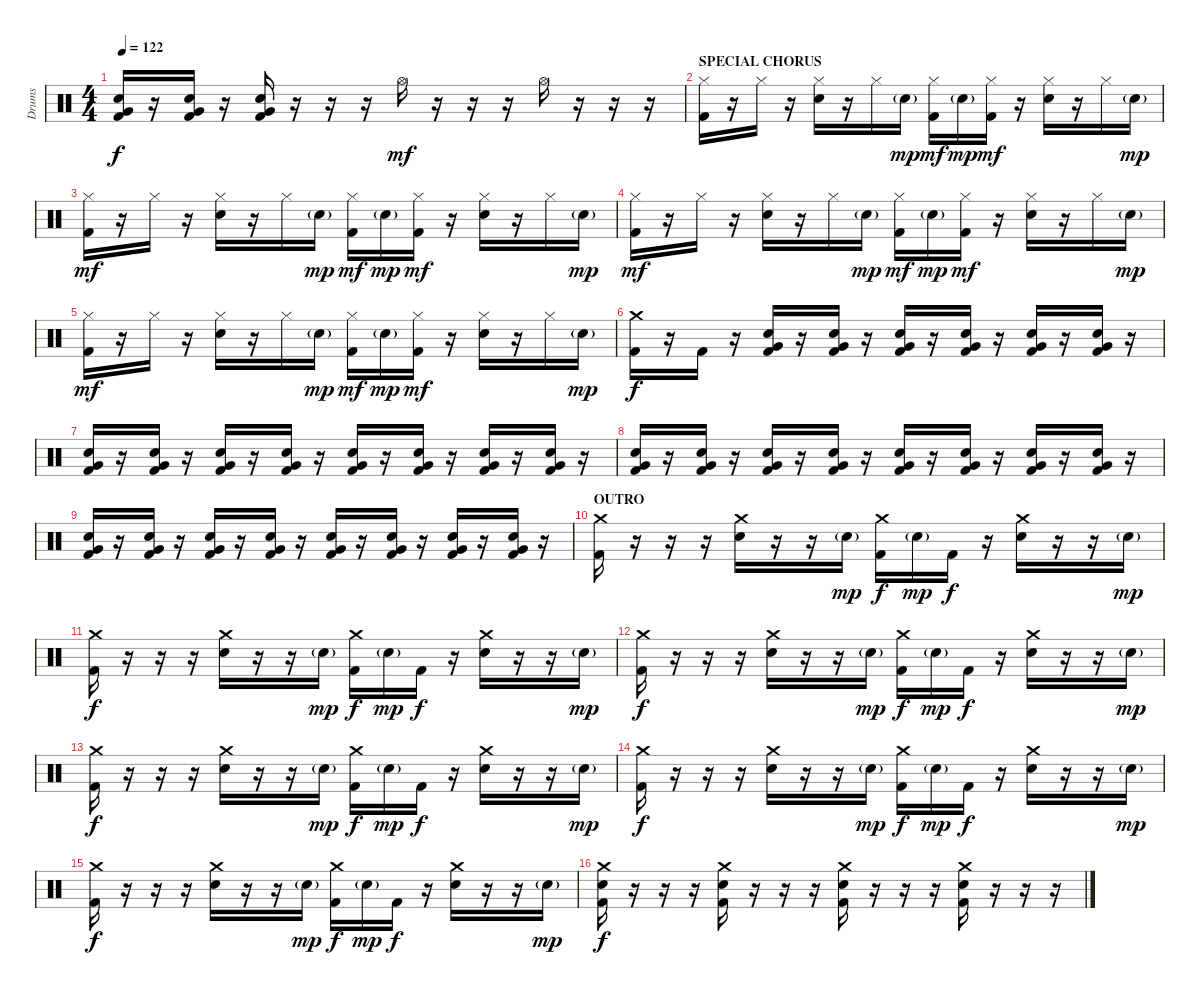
\track ("Drums" "Drums") {instrument percussion}
\staff {score}
\articulation defaults
\ts (4 4)
\tempo 122
\clef neutral
\ks c
("Electric Snare (hit)" "Very Low Tom (hit)" "Kick (hit) 2").16{dy f} r.16 ("Electric Snare (hit)" "Very Low Tom (hit)" "Kick (hit) 2").16 r.16 ("Electric Snare (hit)" "Very Low Tom (hit)" "Kick (hit) 2").16 r.16 r.16 r.16 "Hi-Hat (open)".16{dy mf} r.16 r.16 r.16 "Hi-Hat (open)".16 r.16 r.16 r.16 |
\section ("" "SPECIAL CHORUS")
("Hi-Hat (closed)" "Kick (hit) 2").16 r.16 "Hi-Hat (closed)".16 r.16 ("Hi-Hat (closed)" "Electric Snare (hit)").16 r.16 "Hi-Hat (closed)".16 "Electric Snare (hit)"{g}.16{dy mp} ("Hi-Hat (closed)" "Kick (hit) 2").16{dy mf} "Electric Snare (hit)"{g}.16{dy mp} ("Hi-Hat (closed)" "Kick (hit) 2").16{dy mf} r.16 ("Hi-Hat (closed)" "Electric Snare (hit)").16 r.16 "Hi-Hat (closed)".16 "Electric Snare (hit)"{g}.16{dy mp} |
("Hi-Hat (closed)" "Kick (hit) 2").16{dy mf} r.16 "Hi-Hat (closed)".16 r.16 ("Hi-Hat (closed)" "Electric Snare (hit)").16 r.16 "Hi-Hat (closed)".16 "Electric Snare (hit)"{g}.16{dy mp} ("Hi-Hat (closed)" "Kick (hit) 2").16{dy mf} "Electric Snare (hit)"{g}.16{dy mp} ("Hi-Hat (closed)" "Kick (hit) 2").16{dy mf} r.16 ("Hi-Hat (closed)" "Electric Snare (hit)").16 r.16 "Hi-Hat (closed)".16 "Electric Snare (hit)"{g}.16{dy mp} |
("Hi-Hat (closed)" "Kick (hit) 2").16{dy mf} r.16 "Hi-Hat (closed)".16 r.16 ("Hi-Hat (closed)" "Electric Snare (hit)").16 r.16 "Hi-Hat (closed)".16 "Electric Snare (hit)"{g}.16{dy mp} ("Hi-Hat (closed)" "Kick (hit) 2").16{dy mf} "Electric Snare (hit)"{g}.16{dy mp} ("Hi-Hat (closed)" "Kick (hit) 2").16{dy mf} r.16 ("Hi-Hat (closed)" "Electric Snare (hit)").16 r.16 "Hi-Hat (closed)".16 "Electric Snare (hit)"{g}.16{dy mp} |
("Hi-Hat (closed)" "Kick (hit) 2").16{dy mf} r.16 "Hi-Hat (closed)".16 r.16 ("Hi-Hat (closed)" "Electric Snare (hit)").16 r.16 "Hi-Hat (closed)".16 "Electric Snare (hit)"{g}.16{dy mp} ("Hi-Hat (closed)" "Kick (hit) 2").16{dy mf} "Electric Snare (hit)"{g}.16{dy mp} ("Hi-Hat (closed)" "Kick (hit) 2").16{dy mf} r.16 ("Hi-Hat (closed)" "Electric Snare (hit)").16 r.16 "Hi-Hat (closed)".16 "Electric Snare (hit)"{g}.16{dy mp} |
("Crash medium (hit)" "Kick (hit) 2").16{dy f} r.16 "Kick (hit) 2".16 r.16 ("Electric Snare (hit)" "Very Low Tom (hit)" "Kick (hit) 2").16 r.16 ("Electric Snare (hit)" "Very Low Tom (hit)" "Kick (hit) 2").16 r.16 ("Electric Snare (hit)" "Very Low Tom (hit)" "Kick (hit) 2").16 r.16 ("Electric Snare (hit)" "Very Low Tom (hit)" "Kick (hit) 2").16 r.16 ("Electric Snare (hit)" "Very Low Tom (hit)" "Kick (hit) 2").16 r.16 ("Electric Snare (hit)" "Very Low Tom (hit)" "Kick (hit) 2").16 r.16 |
("Electric Snare (hit)" "Very Low Tom (hit)" "Kick (hit) 2").16 r.16 ("Electric Snare (hit)" "Very Low Tom (hit)" "Kick (hit) 2").16 r.16 ("Electric Snare (hit)" "Very Low Tom (hit)" "Kick (hit) 2").16 r.16 ("Electric Snare (hit)" "Very Low Tom (hit)" "Kick (hit) 2").16 r.16 ("Electric Snare (hit)" "Very Low Tom (hit)" "Kick (hit) 2").16 r.16 ("Electric Snare (hit)" "Very Low Tom (hit)" "Kick (hit) 2").16 r.16 ("Electric Snare (hit)" "Very Low Tom (hit)" "Kick (hit) 2").16 r.16 ("Electric Snare (hit)" "Very Low Tom (hit)" "Kick (hit) 2").16 r.16 |
("Electric Snare (hit)" "Very Low Tom (hit)" "Kick (hit) 2").16 r.16 ("Electric Snare (hit)" "Very Low Tom (hit)" "Kick (hit) 2").16 r.16 ("Electric Snare (hit)" "Very Low Tom (hit)" "Kick (hit) 2").16 r.16 ("Electric Snare (hit)" "Very Low Tom (hit)" "Kick (hit) 2").16 r.16 ("Electric Snare (hit)" "Very Low Tom (hit)" "Kick (hit) 2").16 r.16 ("Electric Snare (hit)" "Very Low Tom (hit)" "Kick (hit) 2").16 r.16 ("Electric Snare (hit)" "Very Low Tom (hit)" "Kick (hit) 2").16 r.16 ("Electric Snare (hit)" "Very Low Tom (hit)" "Kick (hit) 2").16 r.16 |
("Electric Snare (hit)" "Very Low Tom (hit)" "Kick (hit) 2").16 r.16 ("Electric Snare (hit)" "Very Low Tom (hit)" "Kick (hit) 2").16 r.16 ("Electric Snare (hit)" "Very Low Tom (hit)" "Kick (hit) 2").16 r.16 ("Electric Snare (hit)" "Very Low Tom (hit)" "Kick (hit) 2").16 r.16 ("Electric Snare (hit)" "Very Low Tom (hit)" "Kick (hit) 2").16 r.16 ("Electric Snare (hit)" "Very Low Tom (hit)" "Kick (hit) 2").16 r.16 ("Electric Snare (hit)" "Very Low Tom (hit)" "Kick (hit) 2").16 r.16 ("Electric Snare (hit)" "Very Low Tom (hit)" "Kick (hit) 2").16 r.16 |
\section ("" "OUTRO")
("Crash medium (hit)" "Kick (hit) 2").16 r.16 r.16 r.16 ("Crash medium (hit)" "Electric Snare (hit)").16 r.16 r.16 "Electric Snare (hit)"{g}.16{dy mp} ("Crash medium (hit)" "Kick (hit) 2").16{dy f} "Electric Snare (hit)"{g}.16{dy mp} "Kick (hit) 2".16{dy f} r.16 ("Crash medium (hit)" "Electric Snare (hit)").16 r.16 r.16 "Electric Snare (hit)"{g}.16{dy mp} |
("Crash medium (hit)" "Kick (hit) 2").16{dy f} r.16 r.16 r.16 ("Crash medium (hit)" "Electric Snare (hit)").16 r.16 r.16 "Electric Snare (hit)"{g}.16{dy mp} ("Crash medium (hit)" "Kick (hit) 2").16{dy f} "Electric Snare (hit)"{g}.16{dy mp} "Kick (hit) 2".16{dy f} r.16 ("Crash medium (hit)" "Electric Snare (hit)").16 r.16 r.16 "Electric Snare (hit)"{g}.16{dy mp} |
("Crash medium (hit)" "Kick (hit) 2").16{dy f} r.16 r.16 r.16 ("Crash medium (hit)" "Electric Snare (hit)").16 r.16 r.16 "Electric Snare (hit)"{g}.16{dy mp} ("Crash medium (hit)" "Kick (hit) 2").16{dy f} "Electric Snare (hit)"{g}.16{dy mp} "Kick (hit) 2".16{dy f} r.16 ("Crash medium (hit)" "Electric Snare (hit)").16 r.16 r.16 "Electric Snare (hit)"{g}.16{dy mp} |
("Crash medium (hit)" "Kick (hit) 2").16{dy f} r.16 r.16 r.16 ("Crash medium (hit)" "Electric Snare (hit)").16 r.16 r.16 "Electric Snare (hit)"{g}.16{dy mp} ("Crash medium (hit)" "Kick (hit) 2").16{dy f} "Electric Snare (hit)"{g}.16{dy mp} "Kick (hit) 2".16{dy f} r.16 ("Crash medium (hit)" "Electric Snare (hit)").16 r.16 r.16 "Electric Snare (hit)"{g}.16{dy mp} |
("Crash medium (hit)" "Kick (hit) 2").16{dy f} r.16 r.16 r.16 ("Crash medium (hit)" "Electric Snare (hit)").16 r.16 r.16 "Electric Snare (hit)"{g}.16{dy mp} ("Crash medium (hit)" "Kick (hit) 2").16{dy f} "Electric Snare (hit)"{g}.16{dy mp} "Kick (hit) 2".16{dy f} r.16 ("Crash medium (hit)" "Electric Snare (hit)").16 r.16 r.16 "Electric Snare (hit)"{g}.16{dy mp} |
("Crash medium (hit)" "Kick (hit) 2").16{dy f} r.16 r.16 r.16 ("Crash medium (hit)" "Electric Snare (hit)").16 r.16 r.16 "Electric Snare (hit)"{g}.16{dy mp} ("Crash medium (hit)" "Kick (hit) 2").16{dy f} "Electric Snare (hit)"{g}.16{dy mp} "Kick (hit) 2".16{dy f} r.16 ("Crash medium (hit)" "Electric Snare (hit)").16 r.16 r.16 "Electric Snare (hit)"{g}.16{dy mp} |
("Crash medium (hit)" "Electric Snare (hit)" "Kick (hit) 2").16{dy f} r.16 r.16 r.16 ("Crash medium (hit)" "Electric Snare (hit)" "Kick (hit) 2").16 r.16 r.16 r.16 ("Crash medium (hit)" "Electric Snare (hit)" "Kick (hit) 2").16 r.16 r.16 r.16 ("Crash medium (hit)" "Electric Snare (hit)" "Kick (hit) 2").16 r.16 r.16 r.16
